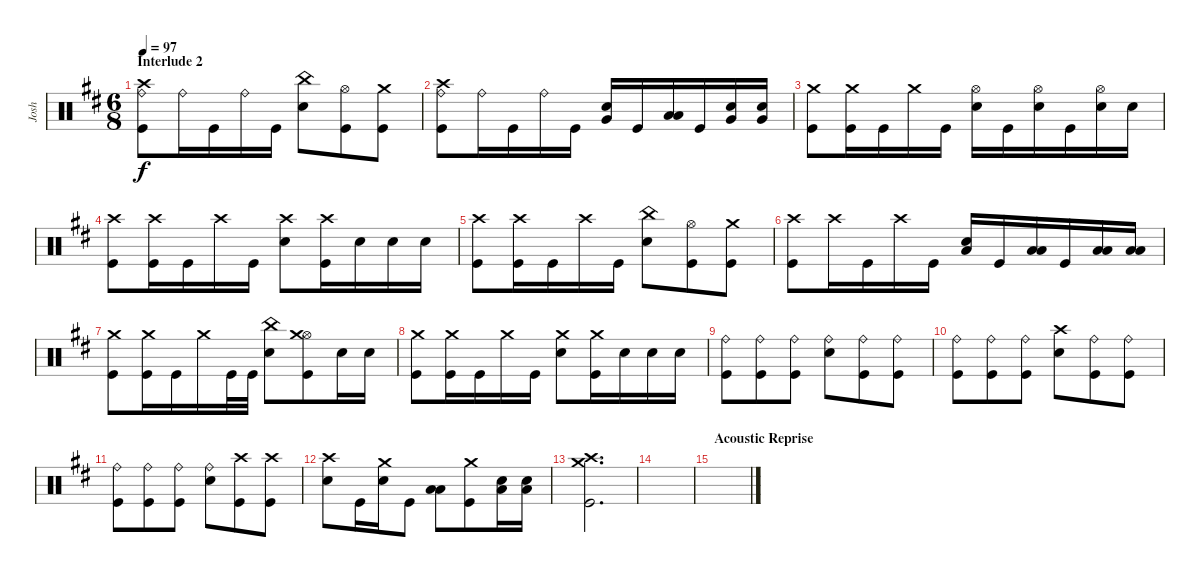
\track ("Josh" "Josh") {instrument percussion}
\staff {score}
\articulation defaults
\ts (6 8)
\section ("" "Interlude 2")
\tempo 97
\clef neutral
\ks bminor
("Kick (hit)" "Ride (bell)" "Crash high (hit)").8{dy f} "Ride (bell)".16 "Kick (hit)".16 "Ride (bell)".16 "Kick (hit)".16 ("Snare (hit) 2" "China (hit)").8 ("Kick (hit)" "Hi-Hat (open)").8 ("Kick (hit)" "Crash medium (hit)").8 |
("Kick (hit)" "Crash high (hit)" "Ride (bell)").8 "Ride (bell)".16 "Kick (hit)".16 "Ride (bell)".16 "Kick (hit)".16 ("Snare (hit) 2" "Very Low Tom (hit)").16 "Kick (hit)".16 ("Low Tom (hit)" "Low Floor Tom (hit)").16 "Kick (hit)".16 ("Snare (hit) 2" "Very Low Tom (hit)").16 ("Snare (hit) 2" "Very Low Tom (hit)").16 |
("Kick (hit)" "Crash medium (hit)").8 ("Kick (hit)" "Crash medium (hit)").16 "Kick (hit)".16 "Crash medium (hit)".16 "Kick (hit)".16 ("Snare (hit) 2" "Hi-Hat (open)").16 "Kick (hit)".16 ("Snare (hit) 2" "Hi-Hat (open)").16 "Kick (hit)".16 ("Snare (hit) 2" "Hi-Hat (open)").16 "Snare (hit) 2".16 |
("Kick (hit)" "Crash high (hit)").8 ("Kick (hit)" "Crash high (hit)").16 "Kick (hit)".16 "Crash high (hit)".16 "Kick (hit)".16 ("Snare (hit) 2" "Crash high (hit)").8 ("Kick (hit)" "Crash high (hit)").16 "Snare (hit) 2".16 "Snare (hit) 2".16 "Snare (hit) 2".16 |
("Kick (hit)" "Crash high (hit)").8 ("Kick (hit)" "Crash high (hit)").16 "Kick (hit)".16 "Crash high (hit)".16 "Kick (hit)".16 ("Snare (hit) 2" "China (hit)").8 ("Kick (hit)" "Hi-Hat (open)").8 ("Kick (hit)" "Crash medium (hit)").8 |
("Kick (hit)" "Crash high (hit)").8 "Crash high (hit)".16 "Kick (hit)".16 "Crash high (hit)".16 "Kick (hit)".16 ("Snare (hit) 2" "Low Floor Tom (hit)").16 "Kick (hit)".16 ("Low Tom (hit)" "Low Floor Tom (hit)").16 "Kick (hit)".16 ("Low Tom (hit)" "Low Floor Tom (hit)").16 ("Low Tom (hit)" "Low Floor Tom (hit)").16 |
("Kick (hit)" "Crash medium (hit)").8 ("Kick (hit)" "Crash medium (hit)").16 "Kick (hit)".16 "Crash medium (hit)".16 "Kick (hit)".32 "Kick (hit)".32 ("Snare (hit) 2" "China (hit)").8 ("Kick (hit)" "Hi-Hat (open)" "Crash medium (hit)").8 "Snare (hit) 2".16 "Snare (hit) 2".16 |
("Kick (hit)" "Crash medium (hit)").8 ("Kick (hit)" "Crash medium (hit)").16 "Kick (hit)".16 "Crash medium (hit)".16 "Kick (hit)".16 ("Snare (hit) 2" "Crash medium (hit)").8 ("Kick (hit)" "Crash medium (hit)").16 "Snare (hit) 2".16 "Snare (hit) 2".16 "Snare (hit) 2".16 |
("Kick (hit)" "Ride (bell)").8 ("Kick (hit)" "Ride (bell)").8 ("Kick (hit)" "Ride (bell)").8 ("Snare (hit) 2" "Ride (bell)").8 ("Kick (hit)" "Ride (bell)").8 ("Kick (hit)" "Ride (bell)").8 |
("Kick (hit)" "Ride (bell)").8 ("Kick (hit)" "Ride (bell)").8 ("Kick (hit)" "Ride (bell)").8 ("Snare (hit) 2" "Crash high (hit)").8 ("Kick (hit)" "Ride (bell)").8 ("Kick (hit)" "Ride (bell)").8 |
("Kick (hit)" "Ride (bell)").8 ("Kick (hit)" "Ride (bell)").8 ("Kick (hit)" "Ride (bell)").8 ("Snare (hit) 2" "Ride (bell)").8 ("Kick (hit)" "Crash high (hit)").8 ("Kick (hit)" "Crash high (hit)").8 |
("Snare (hit) 2" "Crash high (hit)").8 "Kick (hit)".16 ("Snare (hit) 2" "Crash medium (hit)").16 "Kick (hit)".8 ("Low Tom (hit)" "Low Floor Tom (hit)").8 ("Kick (hit)" "Crash medium (hit)").8 ("Snare (hit) 2" "Low Floor Tom (hit)").16 ("Snare (hit) 2" "Low Floor Tom (hit)").16 |
("Kick (hit)" "Crash high (hit)" "Crash medium (hit)").2{d} |
|
\section ("" "Acoustic Reprise")
